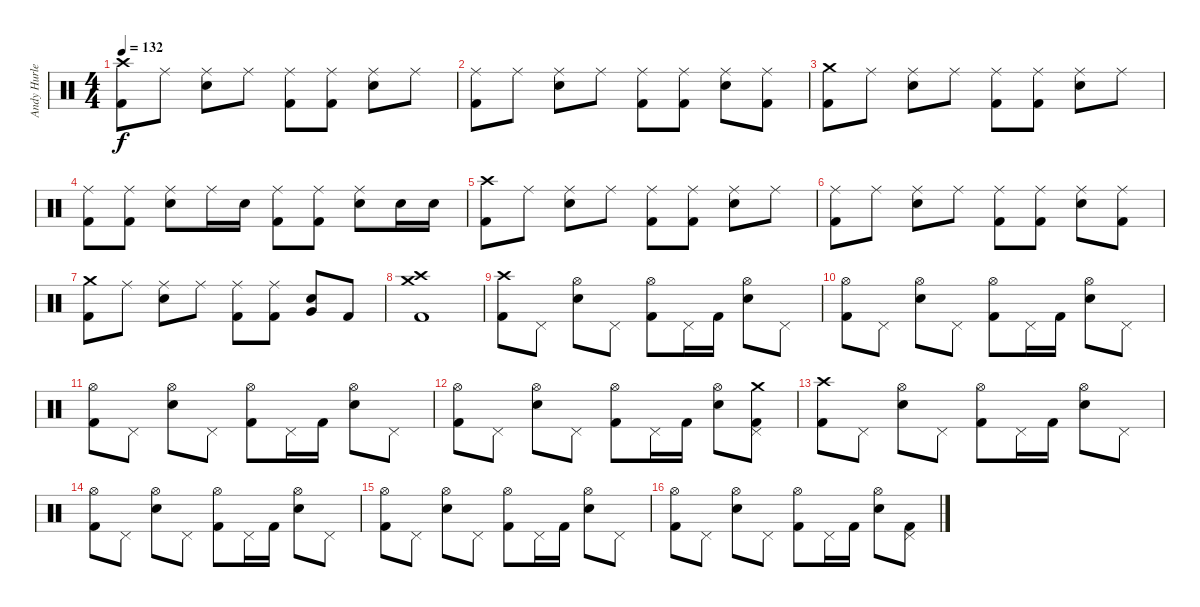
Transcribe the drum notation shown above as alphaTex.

\track ("Andy Hurley" "Andy Hurle") {instrument percussion}
\staff {score}
\articulation defaults
\ts (4 4)
\tempo 132
\clef neutral
\ks c
("Crash high (hit)" "Kick (hit) 2").8{dy f} "Ride (middle)".8 ("Ride (middle)" "Snare (hit) 2").8 "Ride (middle)".8 ("Ride (middle)" "Kick (hit) 2").8 ("Ride (middle)" "Kick (hit) 2").8 ("Ride (middle)" "Snare (hit) 2").8 "Ride (middle)".8 |
("Ride (middle)" "Kick (hit) 2").8 "Ride (middle)".8 ("Ride (middle)" "Snare (hit) 2").8 "Ride (middle)".8 ("Ride (middle)" "Kick (hit) 2").8 ("Ride (middle)" "Kick (hit) 2").8 ("Ride (middle)" "Snare (hit) 2").8 ("Ride (middle)" "Kick (hit) 2").8 |
("Crash medium (hit)" "Kick (hit) 2").8 "Ride (middle)".8 ("Ride (middle)" "Snare (hit) 2").8 "Ride (middle)".8 ("Ride (middle)" "Kick (hit) 2").8 ("Ride (middle)" "Kick (hit) 2").8 ("Ride (middle)" "Snare (hit) 2").8 "Ride (middle)".8 |
("Ride (middle)" "Kick (hit) 2").8 ("Ride (middle)" "Kick (hit) 2").8 ("Ride (middle)" "Snare (hit) 2").8 "Ride (middle)".16 "Snare (hit) 2".16 ("Ride (middle)" "Kick (hit) 2").8 ("Ride (middle)" "Kick (hit) 2").8 ("Ride (middle)" "Snare (hit) 2").8 "Snare (hit) 2".16 "Snare (hit) 2".16 |
("Crash high (hit)" "Kick (hit) 2").8 "Ride (middle)".8 ("Ride (middle)" "Snare (hit) 2").8 "Ride (middle)".8 ("Ride (middle)" "Kick (hit) 2").8 ("Ride (middle)" "Kick (hit) 2").8 ("Ride (middle)" "Snare (hit) 2").8 "Ride (middle)".8 |
("Ride (middle)" "Kick (hit) 2").8 "Ride (middle)".8 ("Ride (middle)" "Snare (hit) 2").8 "Ride (middle)".8 ("Ride (middle)" "Kick (hit) 2").8 ("Ride (middle)" "Kick (hit) 2").8 ("Ride (middle)" "Snare (hit) 2").8 ("Ride (middle)" "Kick (hit) 2").8 |
("Crash medium (hit)" "Kick (hit) 2").8 "Ride (middle)".8 ("Ride (middle)" "Snare (hit) 2").8 "Ride (middle)".8 ("Ride (middle)" "Kick (hit) 2").8 ("Ride (middle)" "Kick (hit) 2").8 ("Snare (hit) 2" "Very Low Tom (hit)").8 "Kick (hit) 2".8 |
("Crash high (hit)" "Crash medium (hit)" "Kick (hit) 2").1 |
("Crash high (hit)" "Kick (hit) 2").8 "Pedal Hi-Hat (hit)".8 ("Hi-Hat (open)" "Snare (hit) 2").8 "Pedal Hi-Hat (hit)".8 ("Hi-Hat (open)" "Kick (hit) 2").8 "Pedal Hi-Hat (hit)".16 "Kick (hit) 2".16 ("Hi-Hat (open)" "Snare (hit) 2").8 "Pedal Hi-Hat (hit)".8 |
("Hi-Hat (open)" "Kick (hit) 2").8 "Pedal Hi-Hat (hit)".8 ("Hi-Hat (open)" "Snare (hit) 2").8 "Pedal Hi-Hat (hit)".8 ("Hi-Hat (open)" "Kick (hit) 2").8 "Pedal Hi-Hat (hit)".16 "Kick (hit) 2".16 ("Hi-Hat (open)" "Snare (hit) 2").8 "Pedal Hi-Hat (hit)".8 |
("Hi-Hat (open)" "Kick (hit) 2").8 "Pedal Hi-Hat (hit)".8 ("Hi-Hat (open)" "Snare (hit) 2").8 "Pedal Hi-Hat (hit)".8 ("Hi-Hat (open)" "Kick (hit) 2").8 "Pedal Hi-Hat (hit)".16 "Kick (hit) 2".16 ("Hi-Hat (open)" "Snare (hit) 2").8 "Pedal Hi-Hat (hit)".8 |
("Hi-Hat (open)" "Kick (hit) 2").8 "Pedal Hi-Hat (hit)".8 ("Hi-Hat (open)" "Snare (hit) 2").8 "Pedal Hi-Hat (hit)".8 ("Hi-Hat (open)" "Kick (hit) 2").8 "Pedal Hi-Hat (hit)".16 "Kick (hit) 2".16 ("Hi-Hat (open)" "Snare (hit) 2").8 ("Crash medium (hit)" "Pedal Hi-Hat (hit)" "Kick (hit) 2").8 |
("Crash high (hit)" "Kick (hit) 2").8 "Pedal Hi-Hat (hit)".8 ("Hi-Hat (open)" "Snare (hit) 2").8 "Pedal Hi-Hat (hit)".8 ("Hi-Hat (open)" "Kick (hit) 2").8 "Pedal Hi-Hat (hit)".16 "Kick (hit) 2".16 ("Hi-Hat (open)" "Snare (hit) 2").8 "Pedal Hi-Hat (hit)".8 |
("Hi-Hat (open)" "Kick (hit) 2").8 "Pedal Hi-Hat (hit)".8 ("Hi-Hat (open)" "Snare (hit) 2").8 "Pedal Hi-Hat (hit)".8 ("Hi-Hat (open)" "Kick (hit) 2").8 "Pedal Hi-Hat (hit)".16 "Kick (hit) 2".16 ("Hi-Hat (open)" "Snare (hit) 2").8 "Pedal Hi-Hat (hit)".8 |
("Hi-Hat (open)" "Kick (hit) 2").8 "Pedal Hi-Hat (hit)".8 ("Hi-Hat (open)" "Snare (hit) 2").8 "Pedal Hi-Hat (hit)".8 ("Hi-Hat (open)" "Kick (hit) 2").8 "Pedal Hi-Hat (hit)".16 "Kick (hit) 2".16 ("Hi-Hat (open)" "Snare (hit) 2").8 "Pedal Hi-Hat (hit)".8 |
("Hi-Hat (open)" "Kick (hit) 2").8 "Pedal Hi-Hat (hit)".8 ("Hi-Hat (open)" "Snare (hit) 2").8 "Pedal Hi-Hat (hit)".8 ("Hi-Hat (open)" "Kick (hit) 2").8 "Pedal Hi-Hat (hit)".16 "Kick (hit) 2".16 ("Hi-Hat (open)" "Snare (hit) 2").8 ("Pedal Hi-Hat (hit)" "Kick (hit) 2").8
